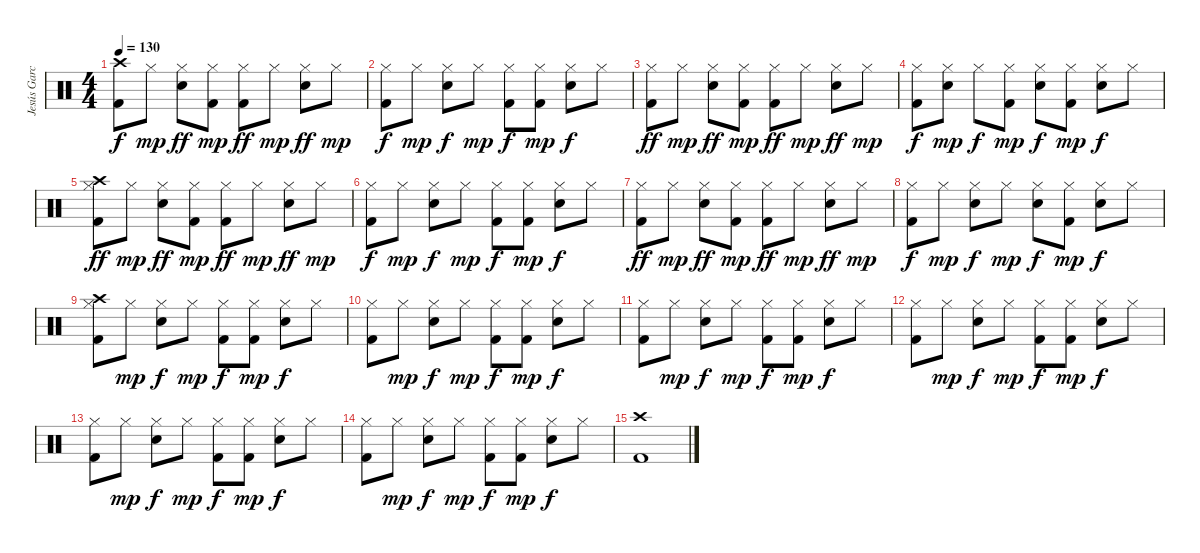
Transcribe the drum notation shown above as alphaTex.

\track ("Jesús García (batería)" "Jesús Garc") {instrument percussion}
\staff {score}
\articulation defaults
\ts (4 4)
\tempo 130
\clef neutral
\ks c
("Crash high (hit)" "Kick (hit) 2").8{dy f} "Hi-Hat (closed)".8{dy mp} ("Hi-Hat (closed)" "Electric Snare (hit)").8{dy ff} ("Hi-Hat (closed)" "Kick (hit) 2").8{dy mp} ("Hi-Hat (closed)" "Kick (hit) 2").8{dy ff} "Hi-Hat (closed)".8{dy mp} ("Hi-Hat (closed)" "Electric Snare (hit)").8{dy ff} "Hi-Hat (closed)".8{dy mp} |
("Hi-Hat (closed)" "Kick (hit) 2").8{dy f} "Hi-Hat (closed)".8{dy mp} ("Hi-Hat (closed)" "Electric Snare (hit)").8{dy f} "Hi-Hat (closed)".8{dy mp} ("Hi-Hat (closed)" "Kick (hit) 2").8{dy f} ("Hi-Hat (closed)" "Kick (hit) 2").8{dy mp} ("Hi-Hat (closed)" "Electric Snare (hit)").8{dy f} "Hi-Hat (closed)".8 |
("Hi-Hat (closed)" "Kick (hit) 2").8{dy ff} "Hi-Hat (closed)".8{dy mp} ("Hi-Hat (closed)" "Electric Snare (hit)").8{dy ff} ("Hi-Hat (closed)" "Kick (hit) 2").8{dy mp} ("Hi-Hat (closed)" "Kick (hit) 2").8{dy ff} "Hi-Hat (closed)".8{dy mp} ("Hi-Hat (closed)" "Electric Snare (hit)").8{dy ff} "Hi-Hat (closed)".8{dy mp} |
("Hi-Hat (closed)" "Kick (hit) 2").8{dy f} ("Hi-Hat (closed)" "Electric Snare (hit)").8{dy mp} "Hi-Hat (closed)".8{dy f} ("Hi-Hat (closed)" "Kick (hit) 2").8{dy mp} ("Hi-Hat (closed)" "Electric Snare (hit)").8{dy f} ("Hi-Hat (closed)" "Kick (hit) 2").8{dy mp} ("Hi-Hat (closed)" "Electric Snare (hit)").8{dy f} "Hi-Hat (closed)".8 |
("Crash high (hit)" "Hi-Hat (closed)" "Kick (hit) 2").8{dy ff} "Hi-Hat (closed)".8{dy mp} ("Hi-Hat (closed)" "Electric Snare (hit)").8{dy ff} ("Hi-Hat (closed)" "Kick (hit) 2").8{dy mp} ("Hi-Hat (closed)" "Kick (hit) 2").8{dy ff} "Hi-Hat (closed)".8{dy mp} ("Hi-Hat (closed)" "Electric Snare (hit)").8{dy ff} "Hi-Hat (closed)".8{dy mp} |
("Hi-Hat (closed)" "Kick (hit) 2").8{dy f} "Hi-Hat (closed)".8{dy mp} ("Hi-Hat (closed)" "Electric Snare (hit)").8{dy f} "Hi-Hat (closed)".8{dy mp} ("Hi-Hat (closed)" "Kick (hit) 2").8{dy f} ("Hi-Hat (closed)" "Kick (hit) 2").8{dy mp} ("Hi-Hat (closed)" "Electric Snare (hit)").8{dy f} "Hi-Hat (closed)".8 |
("Hi-Hat (closed)" "Kick (hit) 2").8{dy ff} "Hi-Hat (closed)".8{dy mp} ("Hi-Hat (closed)" "Electric Snare (hit)").8{dy ff} ("Hi-Hat (closed)" "Kick (hit) 2").8{dy mp} ("Hi-Hat (closed)" "Kick (hit) 2").8{dy ff} "Hi-Hat (closed)".8{dy mp} ("Hi-Hat (closed)" "Electric Snare (hit)").8{dy ff} "Hi-Hat (closed)".8{dy mp} |
("Hi-Hat (closed)" "Kick (hit) 2").8{dy f} "Hi-Hat (closed)".8{dy mp} ("Hi-Hat (closed)" "Electric Snare (hit)").8{dy f} "Hi-Hat (closed)".8{dy mp} ("Hi-Hat (closed)" "Electric Snare (hit)").8{dy f} ("Hi-Hat (closed)" "Kick (hit) 2").8{dy mp} ("Hi-Hat (closed)" "Electric Snare (hit)").8{dy f} "Hi-Hat (closed)".8 |
("Crash high (hit)" "Hi-Hat (closed)" "Kick (hit) 2").8 "Hi-Hat (closed)".8{dy mp} ("Hi-Hat (closed)" "Electric Snare (hit)").8{dy f} "Hi-Hat (closed)".8{dy mp} ("Hi-Hat (closed)" "Kick (hit) 2").8{dy f} ("Hi-Hat (closed)" "Kick (hit) 2").8{dy mp} ("Hi-Hat (closed)" "Electric Snare (hit)").8{dy f} "Hi-Hat (closed)".8 |
("Hi-Hat (closed)" "Kick (hit) 2").8 "Hi-Hat (closed)".8{dy mp} ("Hi-Hat (closed)" "Electric Snare (hit)").8{dy f} "Hi-Hat (closed)".8{dy mp} ("Hi-Hat (closed)" "Kick (hit) 2").8{dy f} ("Hi-Hat (closed)" "Kick (hit) 2").8{dy mp} ("Hi-Hat (closed)" "Electric Snare (hit)").8{dy f} "Hi-Hat (closed)".8 |
("Hi-Hat (closed)" "Kick (hit) 2").8 "Hi-Hat (closed)".8{dy mp} ("Hi-Hat (closed)" "Electric Snare (hit)").8{dy f} "Hi-Hat (closed)".8{dy mp} ("Hi-Hat (closed)" "Kick (hit) 2").8{dy f} ("Hi-Hat (closed)" "Kick (hit) 2").8{dy mp} ("Hi-Hat (closed)" "Electric Snare (hit)").8{dy f} "Hi-Hat (closed)".8 |
("Hi-Hat (closed)" "Kick (hit) 2").8 "Hi-Hat (closed)".8{dy mp} ("Hi-Hat (closed)" "Electric Snare (hit)").8{dy f} "Hi-Hat (closed)".8{dy mp} ("Hi-Hat (closed)" "Kick (hit) 2").8{dy f} ("Hi-Hat (closed)" "Kick (hit) 2").8{dy mp} ("Hi-Hat (closed)" "Electric Snare (hit)").8{dy f} "Hi-Hat (closed)".8 |
("Hi-Hat (closed)" "Kick (hit) 2").8 "Hi-Hat (closed)".8{dy mp} ("Hi-Hat (closed)" "Electric Snare (hit)").8{dy f} "Hi-Hat (closed)".8{dy mp} ("Hi-Hat (closed)" "Kick (hit) 2").8{dy f} ("Hi-Hat (closed)" "Kick (hit) 2").8{dy mp} ("Hi-Hat (closed)" "Electric Snare (hit)").8{dy f} "Hi-Hat (closed)".8 |
("Hi-Hat (closed)" "Kick (hit) 2").8 "Hi-Hat (closed)".8{dy mp} ("Hi-Hat (closed)" "Electric Snare (hit)").8{dy f} "Hi-Hat (closed)".8{dy mp} ("Hi-Hat (closed)" "Kick (hit) 2").8{dy f} ("Hi-Hat (closed)" "Kick (hit) 2").8{dy mp} ("Hi-Hat (closed)" "Electric Snare (hit)").8{dy f} "Hi-Hat (closed)".8 |
("Crash high (hit)" "Kick (hit) 2").1
